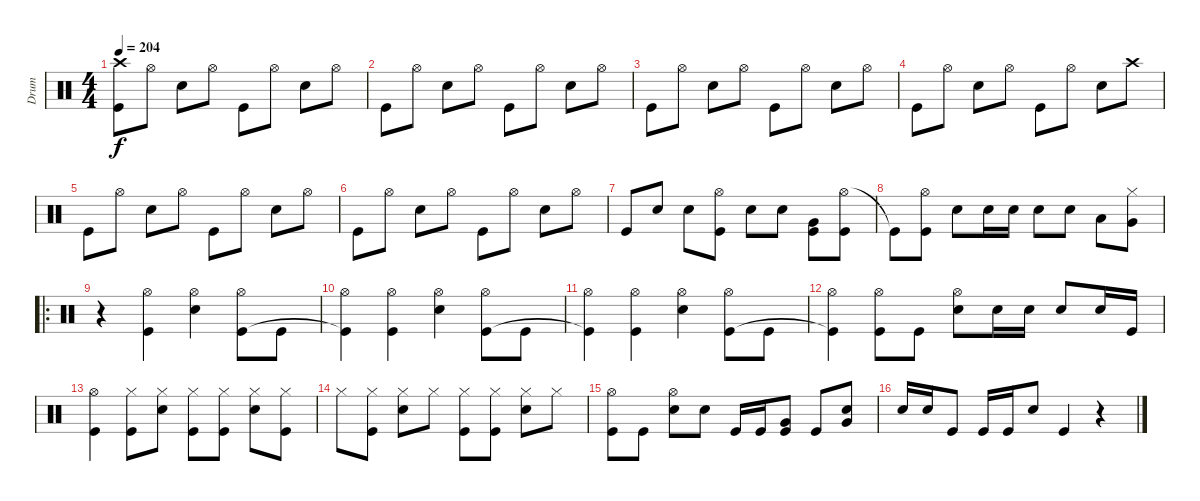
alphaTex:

\track ("Drum" "Drum") {instrument percussion}
\staff {score}
\articulation defaults
\ts (4 4)
\tempo 204
\clef neutral
\ks c
("Crash high (hit)" "Kick (hit)").8{dy f} "Hi-Hat (open)".8 "Snare (hit) 2".8 "Hi-Hat (open)".8 "Kick (hit)".8 "Hi-Hat (open)".8 "Snare (hit) 2".8 "Hi-Hat (open)".8 |
"Kick (hit)".8 "Hi-Hat (open)".8 "Snare (hit) 2".8 "Hi-Hat (open)".8 "Kick (hit)".8 "Hi-Hat (open)".8 "Snare (hit) 2".8 "Hi-Hat (open)".8 |
"Kick (hit)".8 "Hi-Hat (open)".8 "Snare (hit) 2".8 "Hi-Hat (open)".8 "Kick (hit)".8 "Hi-Hat (open)".8 "Snare (hit) 2".8 "Hi-Hat (open)".8 |
"Kick (hit)".8 "Hi-Hat (open)".8 "Snare (hit) 2".8 "Hi-Hat (open)".8 "Kick (hit)".8 "Hi-Hat (open)".8 "Snare (hit) 2".8 "Crash high (hit)".8 |
"Kick (hit)".8 "Hi-Hat (open)".8 "Snare (hit) 2".8 "Hi-Hat (open)".8 "Kick (hit)".8 "Hi-Hat (open)".8 "Snare (hit) 2".8 "Hi-Hat (open)".8 |
"Kick (hit)".8 "Hi-Hat (open)".8 "Snare (hit) 2".8 "Hi-Hat (open)".8 "Kick (hit)".8 "Hi-Hat (open)".8 "Snare (hit) 2".8 "Hi-Hat (open)".8 |
"Kick (hit)".8 "Snare (hit) 2".8 "Snare (hit) 2".8 ("Hi-Hat (open)" "Kick (hit)").8 "Snare (hit) 2".8 "Snare (hit) 2".8 ("Very Low Tom (hit)" "Kick (hit)").8 ("Hi-Hat (open)" "Kick (hit)").8 |
"Kick (hit)"{t}.8 ("Hi-Hat (open)" "Kick (hit)").8 "Snare (hit) 2".8 "Snare (hit) 2".16 "Snare (hit) 2".16 "Snare (hit) 2".8 "Snare (hit) 2".8 "Low Tom (hit)".8 ("Hi-Hat (closed)" "Very Low Tom (hit)").8 |
\ro
r.4 ("Hi-Hat (open)" "Kick (hit)").4 ("Hi-Hat (open)" "Snare (hit) 2").4 ("Hi-Hat (open)" "Kick (hit)").8 "Kick (hit)".8 |
("Hi-Hat (open)" "Kick (hit)"{t}).4 ("Hi-Hat (open)" "Kick (hit)").4 ("Hi-Hat (open)" "Snare (hit) 2").4 ("Hi-Hat (open)" "Kick (hit)").8 "Kick (hit)".8 |
("Hi-Hat (open)" "Kick (hit)"{t}).4 ("Hi-Hat (open)" "Kick (hit)").4 ("Hi-Hat (open)" "Snare (hit) 2").4 ("Hi-Hat (open)" "Kick (hit)").8 "Kick (hit)".8 |
("Hi-Hat (open)" "Kick (hit)"{t}).4 ("Hi-Hat (open)" "Kick (hit)").8 "Kick (hit)".8 ("Hi-Hat (open)" "Snare (hit) 2").8 "Snare (hit) 2".16 "Snare (hit) 2".16 "Snare (hit) 2".8 "Snare (hit) 2".16 "Kick (hit)".16 |
("Hi-Hat (open)" "Kick (hit)").4 ("Hi-Hat (closed)" "Kick (hit)").8 ("Hi-Hat (closed)" "Snare (hit) 2").8 ("Hi-Hat (closed)" "Kick (hit)").8 ("Hi-Hat (closed)" "Kick (hit)").8 ("Hi-Hat (closed)" "Snare (hit) 2").8 ("Hi-Hat (closed)" "Kick (hit)").8 |
"Hi-Hat (closed)".8 ("Hi-Hat (closed)" "Kick (hit)").8 ("Hi-Hat (closed)" "Snare (hit) 2").8 "Hi-Hat (closed)".8 ("Hi-Hat (closed)" "Kick (hit)").8 ("Hi-Hat (closed)" "Kick (hit)").8 ("Hi-Hat (closed)" "Snare (hit) 2").8 "Hi-Hat (closed)".8 |
("Hi-Hat (open)" "Kick (hit)").8 "Kick (hit)".8 ("Hi-Hat (open)" "Snare (hit) 2").8 "Snare (hit) 2".8 "Kick (hit)".16 "Kick (hit)".16 ("Very Low Tom (hit)" "Kick (hit)").8 "Kick (hit)".8 ("Snare (hit) 2" "Very Low Tom (hit)").8 |
"Snare (hit) 2".16 "Snare (hit) 2".16 "Kick (hit)".8 "Kick (hit)".16 "Kick (hit)".16 "Snare (hit) 2".8 "Kick (hit)".4 r.4
